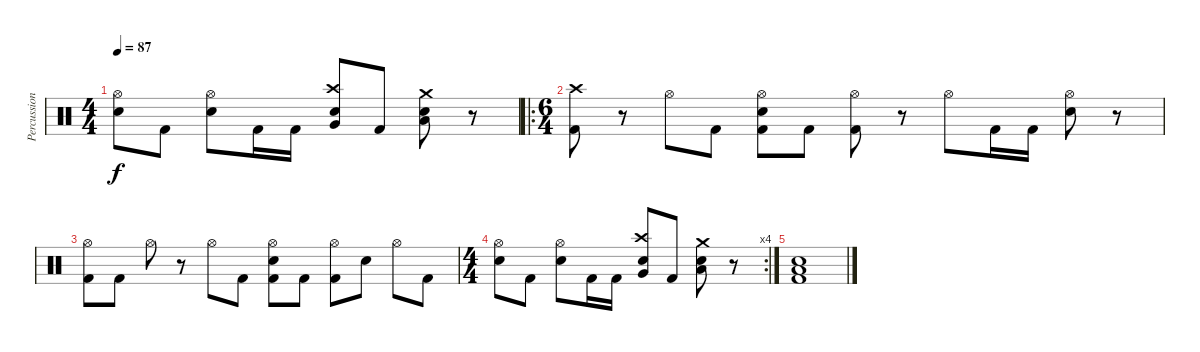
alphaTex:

\track ("Percussion" "Percussion") {instrument percussion}
\staff {score}
\articulation defaults
\ts (4 4)
\tempo 87
\clef neutral
\ks c
("Hi-Hat (open)" "Snare (hit) 2").8{dy f} "Kick (hit) 2".8 ("Hi-Hat (open)" "Snare (hit) 2").8 "Kick (hit) 2".16 "Kick (hit) 2".16 ("Crash high (hit)" "Very Low Tom (hit)" "Snare (hit) 2").8 "Kick (hit) 2".8 ("Crash medium (hit)" "Low Floor Tom (hit)" "Snare (hit) 2").8 r.8 |
\ro
\ts (6 4)
("Crash high (hit)" "Kick (hit) 2").8 r.8 "Hi-Hat (open)".8 "Kick (hit) 2".8 ("Hi-Hat (open)" "Snare (hit) 2" "Kick (hit) 2").8 "Kick (hit) 2".8 ("Hi-Hat (open)" "Kick (hit) 2").8 r.8 "Hi-Hat (open)".8 "Kick (hit) 2".16 "Kick (hit) 2".16 ("Hi-Hat (open)" "Snare (hit) 2").8 r.8 |
("Hi-Hat (open)" "Kick (hit) 2").8 "Kick (hit) 2".8 "Hi-Hat (open)".8 r.8 "Hi-Hat (open)".8 "Kick (hit) 2".8 ("Hi-Hat (open)" "Snare (hit) 2" "Kick (hit) 2").8 "Kick (hit) 2".8 ("Hi-Hat (open)" "Kick (hit) 2").8 "Electric Snare (hit)".8 "Hi-Hat (open)".8 "Kick (hit) 2".8 |
\rc 4
\ts (4 4)
("Hi-Hat (open)" "Snare (hit) 2").8 "Kick (hit) 2".8 ("Hi-Hat (open)" "Snare (hit) 2").8 "Kick (hit) 2".16 "Kick (hit) 2".16 ("Crash high (hit)" "Very Low Tom (hit)" "Snare (hit) 2").8 "Kick (hit) 2".8 ("Crash medium (hit)" "Low Floor Tom (hit)" "Snare (hit) 2").8 r.8 |
("Low Floor Tom (hit)" "Snare (hit) 2" "Kick (hit) 2").1
